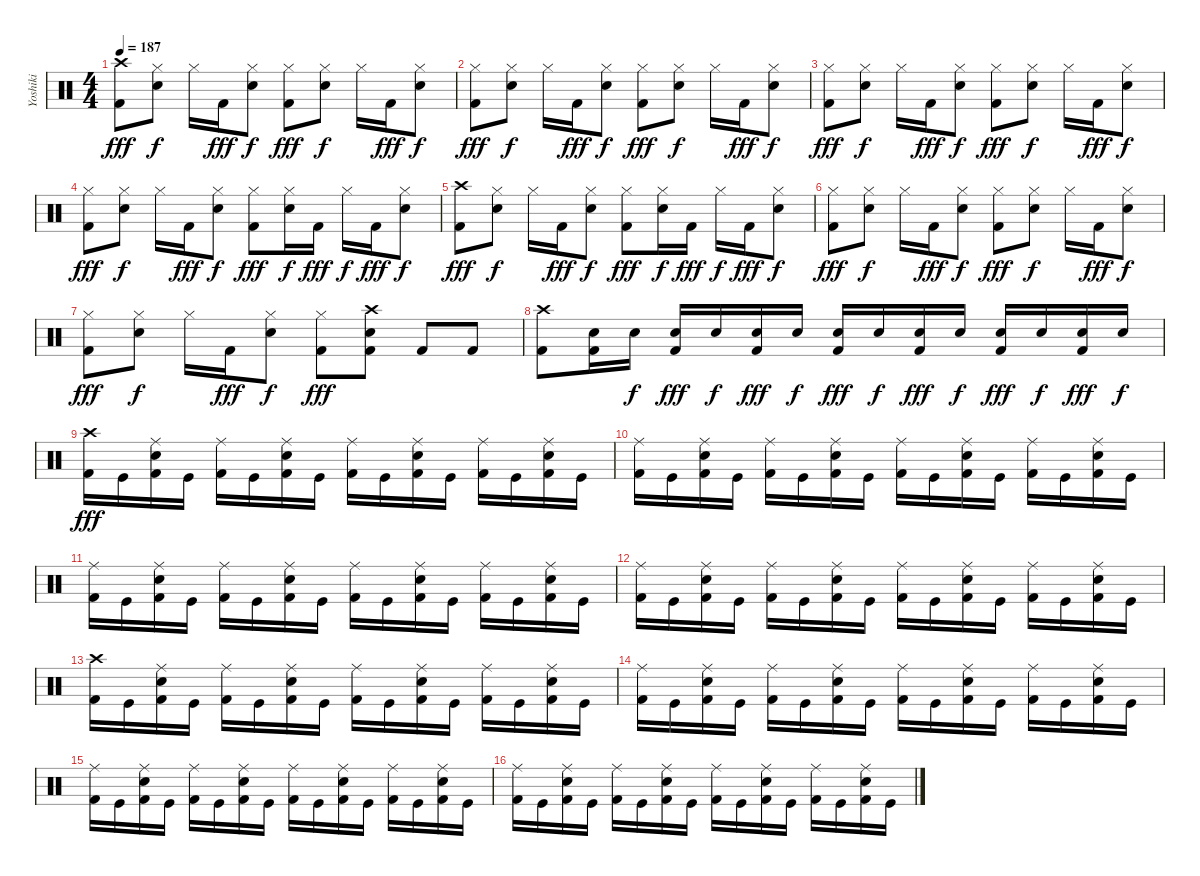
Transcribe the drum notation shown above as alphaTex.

\track ("Yoshiki" "Yoshiki") {instrument percussion}
\staff {score}
\articulation defaults
\ts (4 4)
\tempo 187
\clef neutral
\ks c
("Crash high (hit)" "Kick (hit) 2").8{dy fff} ("Hi-Hat (closed)" "Electric Snare (hit)").8{dy f} "Hi-Hat (closed)".16 "Kick (hit) 2".16{dy fff} ("Hi-Hat (closed)" "Electric Snare (hit)").8{dy f} ("Hi-Hat (closed)" "Kick (hit) 2").8{dy fff} ("Hi-Hat (closed)" "Electric Snare (hit)").8{dy f} "Hi-Hat (closed)".16 "Kick (hit) 2".16{dy fff} ("Hi-Hat (closed)" "Electric Snare (hit)").8{dy f} |
("Hi-Hat (closed)" "Kick (hit) 2").8{dy fff} ("Hi-Hat (closed)" "Electric Snare (hit)").8{dy f} "Hi-Hat (closed)".16 "Kick (hit) 2".16{dy fff} ("Hi-Hat (closed)" "Electric Snare (hit)").8{dy f} ("Hi-Hat (closed)" "Kick (hit) 2").8{dy fff} ("Hi-Hat (closed)" "Electric Snare (hit)").8{dy f} "Hi-Hat (closed)".16 "Kick (hit) 2".16{dy fff} ("Hi-Hat (closed)" "Electric Snare (hit)").8{dy f} |
("Hi-Hat (closed)" "Kick (hit) 2").8{dy fff} ("Hi-Hat (closed)" "Electric Snare (hit)").8{dy f} "Hi-Hat (closed)".16 "Kick (hit) 2".16{dy fff} ("Hi-Hat (closed)" "Electric Snare (hit)").8{dy f} ("Hi-Hat (closed)" "Kick (hit) 2").8{dy fff} ("Hi-Hat (closed)" "Electric Snare (hit)").8{dy f} "Hi-Hat (closed)".16 "Kick (hit) 2".16{dy fff} ("Hi-Hat (closed)" "Electric Snare (hit)").8{dy f} |
("Hi-Hat (closed)" "Kick (hit) 2").8{dy fff} ("Hi-Hat (closed)" "Electric Snare (hit)").8{dy f} "Hi-Hat (closed)".16 "Kick (hit) 2".16{dy fff} ("Hi-Hat (closed)" "Electric Snare (hit)").8{dy f} ("Hi-Hat (closed)" "Kick (hit) 2").8{dy fff} ("Hi-Hat (closed)" "Electric Snare (hit)").16{dy f} "Kick (hit) 2".16{dy fff} "Hi-Hat (closed)".16{dy f} "Kick (hit) 2".16{dy fff} ("Hi-Hat (closed)" "Electric Snare (hit)").8{dy f} |
("Crash high (hit)" "Kick (hit) 2").8{dy fff} ("Hi-Hat (closed)" "Electric Snare (hit)").8{dy f} "Hi-Hat (closed)".16 "Kick (hit) 2".16{dy fff} ("Hi-Hat (closed)" "Electric Snare (hit)").8{dy f} ("Hi-Hat (closed)" "Kick (hit) 2").8{dy fff} ("Hi-Hat (closed)" "Electric Snare (hit)").16{dy f} "Kick (hit) 2".16{dy fff} "Hi-Hat (closed)".16{dy f} "Kick (hit) 2".16{dy fff} ("Hi-Hat (closed)" "Electric Snare (hit)").8{dy f} |
("Hi-Hat (closed)" "Kick (hit) 2").8{dy fff} ("Hi-Hat (closed)" "Electric Snare (hit)").8{dy f} "Hi-Hat (closed)".16 "Kick (hit) 2".16{dy fff} ("Hi-Hat (closed)" "Electric Snare (hit)").8{dy f} ("Hi-Hat (closed)" "Kick (hit) 2").8{dy fff} ("Hi-Hat (closed)" "Electric Snare (hit)").8{dy f} "Hi-Hat (closed)".16 "Kick (hit) 2".16{dy fff} ("Hi-Hat (closed)" "Electric Snare (hit)").8{dy f} |
("Hi-Hat (closed)" "Kick (hit) 2").8{dy fff} ("Hi-Hat (closed)" "Electric Snare (hit)").8{dy f} "Hi-Hat (closed)".16 "Kick (hit) 2".16{dy fff} ("Hi-Hat (closed)" "Electric Snare (hit)").8{dy f} ("Hi-Hat (closed)" "Kick (hit) 2").8{dy fff} ("Crash high (hit)" "Electric Snare (hit)" "Kick (hit) 2").8 "Kick (hit) 2".8 "Kick (hit) 2".8 |
("Crash high (hit)" "Kick (hit) 2").8 ("Electric Snare (hit)" "Kick (hit) 2").16 "Electric Snare (hit)".16{dy f} ("Electric Snare (hit)" "Kick (hit) 2").16{dy fff} "Electric Snare (hit)".16{dy f} ("Electric Snare (hit)" "Kick (hit) 2").16{dy fff} "Electric Snare (hit)".16{dy f} ("Electric Snare (hit)" "Kick (hit) 2").16{dy fff} "Electric Snare (hit)".16{dy f} ("Electric Snare (hit)" "Kick (hit) 2").16{dy fff} "Electric Snare (hit)".16{dy f} ("Electric Snare (hit)" "Kick (hit) 2").16{dy fff} "Electric Snare (hit)".16{dy f} ("Electric Snare (hit)" "Kick (hit) 2").16{dy fff} "Electric Snare (hit)".16{dy f} |
("Crash high (hit)" "Kick (hit) 2").16{dy fff} "Kick (hit)".16 ("Ride (middle)" "Electric Snare (hit)" "Kick (hit) 2").16 "Kick (hit)".16 ("Ride (middle)" "Kick (hit) 2").16 "Kick (hit)".16 ("Ride (middle)" "Electric Snare (hit)" "Kick (hit) 2").16 "Kick (hit)".16 ("Ride (middle)" "Kick (hit) 2").16 "Kick (hit)".16 ("Ride (middle)" "Electric Snare (hit)" "Kick (hit) 2").16 "Kick (hit)".16 ("Ride (middle)" "Kick (hit) 2").16 "Kick (hit)".16 ("Ride (middle)" "Electric Snare (hit)" "Kick (hit) 2").16 "Kick (hit)".16 |
("Ride (middle)" "Kick (hit) 2").16 "Kick (hit)".16 ("Ride (middle)" "Electric Snare (hit)" "Kick (hit) 2").16 "Kick (hit)".16 ("Ride (middle)" "Kick (hit) 2").16 "Kick (hit)".16 ("Ride (middle)" "Electric Snare (hit)" "Kick (hit) 2").16 "Kick (hit)".16 ("Ride (middle)" "Kick (hit) 2").16 "Kick (hit)".16 ("Ride (middle)" "Electric Snare (hit)" "Kick (hit) 2").16 "Kick (hit)".16 ("Ride (middle)" "Kick (hit) 2").16 "Kick (hit)".16 ("Ride (middle)" "Electric Snare (hit)" "Kick (hit) 2").16 "Kick (hit)".16 |
("Ride (middle)" "Kick (hit) 2").16 "Kick (hit)".16 ("Ride (middle)" "Electric Snare (hit)" "Kick (hit) 2").16 "Kick (hit)".16 ("Ride (middle)" "Kick (hit) 2").16 "Kick (hit)".16 ("Ride (middle)" "Electric Snare (hit)" "Kick (hit) 2").16 "Kick (hit)".16 ("Ride (middle)" "Kick (hit) 2").16 "Kick (hit)".16 ("Ride (middle)" "Electric Snare (hit)" "Kick (hit) 2").16 "Kick (hit)".16 ("Ride (middle)" "Kick (hit) 2").16 "Kick (hit)".16 ("Ride (middle)" "Electric Snare (hit)" "Kick (hit) 2").16 "Kick (hit)".16 |
("Ride (middle)" "Kick (hit) 2").16 "Kick (hit)".16 ("Ride (middle)" "Electric Snare (hit)" "Kick (hit) 2").16 "Kick (hit)".16 ("Ride (middle)" "Kick (hit) 2").16 "Kick (hit)".16 ("Ride (middle)" "Electric Snare (hit)" "Kick (hit) 2").16 "Kick (hit)".16 ("Ride (middle)" "Kick (hit) 2").16 "Kick (hit)".16 ("Ride (middle)" "Electric Snare (hit)" "Kick (hit) 2").16 "Kick (hit)".16 ("Ride (middle)" "Kick (hit) 2").16 "Kick (hit)".16 ("Ride (middle)" "Electric Snare (hit)" "Kick (hit) 2").16 "Kick (hit)".16 |
("Crash high (hit)" "Kick (hit) 2").16 "Kick (hit)".16 ("Ride (middle)" "Electric Snare (hit)" "Kick (hit) 2").16 "Kick (hit)".16 ("Ride (middle)" "Kick (hit) 2").16 "Kick (hit)".16 ("Ride (middle)" "Electric Snare (hit)" "Kick (hit) 2").16 "Kick (hit)".16 ("Ride (middle)" "Kick (hit) 2").16 "Kick (hit)".16 ("Ride (middle)" "Electric Snare (hit)" "Kick (hit) 2").16 "Kick (hit)".16 ("Ride (middle)" "Kick (hit) 2").16 "Kick (hit)".16 ("Ride (middle)" "Electric Snare (hit)" "Kick (hit) 2").16 "Kick (hit)".16 |
("Ride (middle)" "Kick (hit) 2").16 "Kick (hit)".16 ("Ride (middle)" "Electric Snare (hit)" "Kick (hit) 2").16 "Kick (hit)".16 ("Ride (middle)" "Kick (hit) 2").16 "Kick (hit)".16 ("Ride (middle)" "Electric Snare (hit)" "Kick (hit) 2").16 "Kick (hit)".16 ("Ride (middle)" "Kick (hit) 2").16 "Kick (hit)".16 ("Ride (middle)" "Electric Snare (hit)" "Kick (hit) 2").16 "Kick (hit)".16 ("Ride (middle)" "Kick (hit) 2").16 "Kick (hit)".16 ("Ride (middle)" "Electric Snare (hit)" "Kick (hit) 2").16 "Kick (hit)".16 |
("Ride (middle)" "Kick (hit) 2").16 "Kick (hit)".16 ("Ride (middle)" "Electric Snare (hit)" "Kick (hit) 2").16 "Kick (hit)".16 ("Ride (middle)" "Kick (hit) 2").16 "Kick (hit)".16 ("Ride (middle)" "Electric Snare (hit)" "Kick (hit) 2").16 "Kick (hit)".16 ("Ride (middle)" "Kick (hit) 2").16 "Kick (hit)".16 ("Ride (middle)" "Electric Snare (hit)" "Kick (hit) 2").16 "Kick (hit)".16 ("Ride (middle)" "Kick (hit) 2").16 "Kick (hit)".16 ("Ride (middle)" "Electric Snare (hit)" "Kick (hit) 2").16 "Kick (hit)".16 |
("Ride (middle)" "Kick (hit) 2").16 "Kick (hit)".16 ("Ride (middle)" "Electric Snare (hit)" "Kick (hit) 2").16 "Kick (hit)".16 ("Ride (middle)" "Kick (hit) 2").16 "Kick (hit)".16 ("Ride (middle)" "Electric Snare (hit)" "Kick (hit) 2").16 "Kick (hit)".16 ("Ride (middle)" "Kick (hit) 2").16 "Kick (hit)".16 ("Ride (middle)" "Electric Snare (hit)" "Kick (hit) 2").16 "Kick (hit)".16 ("Ride (middle)" "Kick (hit) 2").16 "Kick (hit)".16 ("Ride (middle)" "Electric Snare (hit)" "Kick (hit) 2").16 "Kick (hit)".16
